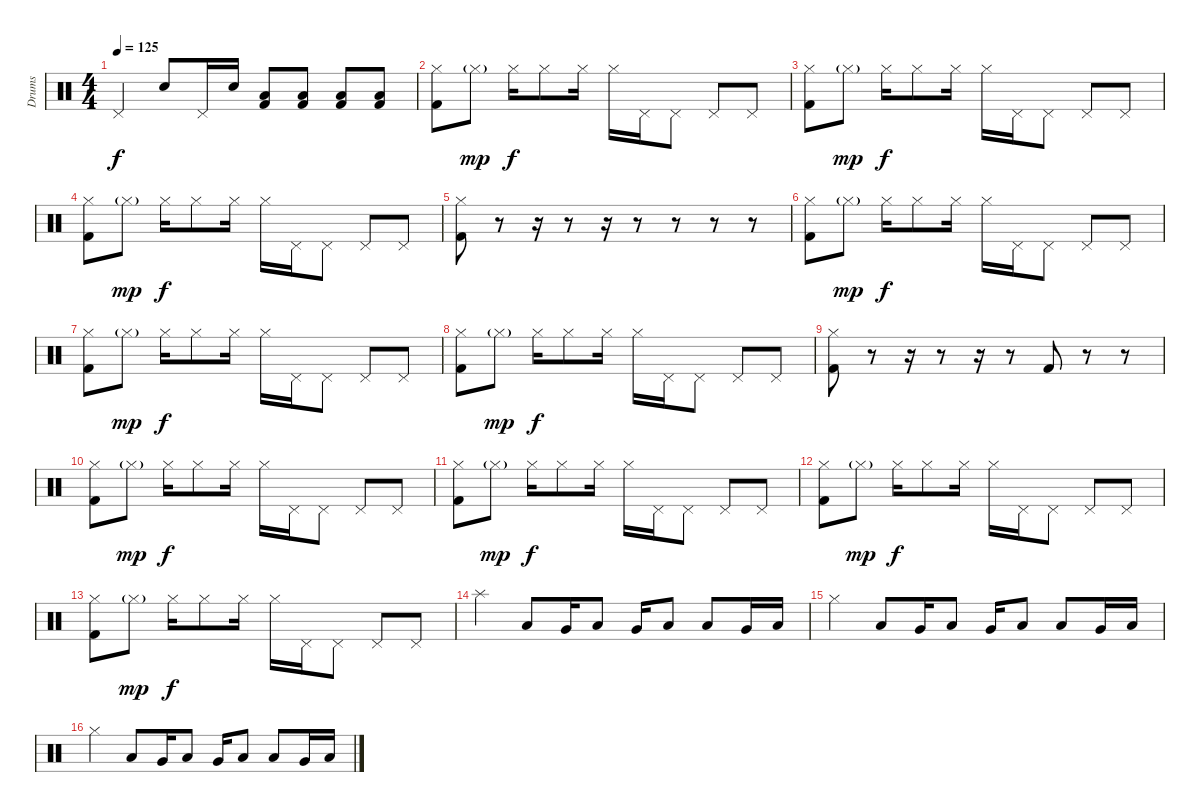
\track ("Drums" "Drums") {instrument percussion}
\staff {score}
\articulation defaults
\ts (4 4)
\tempo 125
\clef neutral
\ks c "Pedal Hi-Hat (hit)".4{dy f} "Snare (hit) 2".8 "Pedal Hi-Hat (hit)".16 "Snare (hit) 2".16
("Low Floor Tom (hit)" "Kick (hit) 2").8 ("Low Floor Tom (hit)" "Kick (hit) 2").8 ("Low Floor Tom (hit)" "Kick (hit) 2").8 ("Low Floor Tom (hit)" "Kick (hit) 2").8 |
("Kick (hit) 2" "Hi-Hat (closed)").8 "Hi-Hat (closed)"{g}.8{dy mp} "Hi-Hat (closed)".16{dy f} "Hi-Hat (closed)".8 "Hi-Hat (closed)".16 "Hi-Hat (closed)".16 "Pedal Hi-Hat (hit)".16 "Pedal Hi-Hat (hit)".8 "Pedal Hi-Hat (hit)".8 "Pedal Hi-Hat (hit)".8 |
("Kick (hit) 2" "Hi-Hat (closed)").8 "Hi-Hat (closed)"{g}.8{dy mp} "Hi-Hat (closed)".16{dy f} "Hi-Hat (closed)".8 "Hi-Hat (closed)".16 "Hi-Hat (closed)".16 "Pedal Hi-Hat (hit)".16 "Pedal Hi-Hat (hit)".8 "Pedal Hi-Hat (hit)".8 "Pedal Hi-Hat (hit)".8 |
("Kick (hit) 2" "Hi-Hat (closed)").8 "Hi-Hat (closed)"{g}.8{dy mp} "Hi-Hat (closed)".16{dy f} "Hi-Hat (closed)".8 "Hi-Hat (closed)".16 "Hi-Hat (closed)".16 "Pedal Hi-Hat (hit)".16 "Pedal Hi-Hat (hit)".8 "Pedal Hi-Hat (hit)".8 "Pedal Hi-Hat (hit)".8 |
("Kick (hit) 2" "Hi-Hat (closed)").8 r.8 r.16 r.8 r.16 r.8 r.8 r.8 r.8 |
("Kick (hit) 2" "Hi-Hat (closed)").8 "Hi-Hat (closed)"{g}.8{dy mp} "Hi-Hat (closed)".16{dy f} "Hi-Hat (closed)".8 "Hi-Hat (closed)".16 "Hi-Hat (closed)".16 "Pedal Hi-Hat (hit)".16 "Pedal Hi-Hat (hit)".8 "Pedal Hi-Hat (hit)".8 "Pedal Hi-Hat (hit)".8 |
("Kick (hit) 2" "Hi-Hat (closed)").8 "Hi-Hat (closed)"{g}.8{dy mp} "Hi-Hat (closed)".16{dy f} "Hi-Hat (closed)".8 "Hi-Hat (closed)".16 "Hi-Hat (closed)".16 "Pedal Hi-Hat (hit)".16 "Pedal Hi-Hat (hit)".8 "Pedal Hi-Hat (hit)".8 "Pedal Hi-Hat (hit)".8 |
("Kick (hit) 2" "Hi-Hat (closed)").8 "Hi-Hat (closed)"{g}.8{dy mp} "Hi-Hat (closed)".16{dy f} "Hi-Hat (closed)".8 "Hi-Hat (closed)".16 "Hi-Hat (closed)".16 "Pedal Hi-Hat (hit)".16 "Pedal Hi-Hat (hit)".8 "Pedal Hi-Hat (hit)".8 "Pedal Hi-Hat (hit)".8 |
("Kick (hit) 2" "Hi-Hat (closed)").8 r.8 r.16 r.8 r.16 r.8 "Kick (hit) 2".8 r.8 r.8 |
("Kick (hit) 2" "Hi-Hat (closed)").8 "Hi-Hat (closed)"{g}.8{dy mp} "Hi-Hat (closed)".16{dy f} "Hi-Hat (closed)".8 "Hi-Hat (closed)".16 "Hi-Hat (closed)".16 "Pedal Hi-Hat (hit)".16 "Pedal Hi-Hat (hit)".8 "Pedal Hi-Hat (hit)".8 "Pedal Hi-Hat (hit)".8 |
("Kick (hit) 2" "Hi-Hat (closed)").8 "Hi-Hat (closed)"{g}.8{dy mp} "Hi-Hat (closed)".16{dy f} "Hi-Hat (closed)".8 "Hi-Hat (closed)".16 "Hi-Hat (closed)".16 "Pedal Hi-Hat (hit)".16 "Pedal Hi-Hat (hit)".8 "Pedal Hi-Hat (hit)".8 "Pedal Hi-Hat (hit)".8 |
("Kick (hit) 2" "Hi-Hat (closed)").8 "Hi-Hat (closed)"{g}.8{dy mp} "Hi-Hat (closed)".16{dy f} "Hi-Hat (closed)".8 "Hi-Hat (closed)".16 "Hi-Hat (closed)".16 "Pedal Hi-Hat (hit)".16 "Pedal Hi-Hat (hit)".8 "Pedal Hi-Hat (hit)".8 "Pedal Hi-Hat (hit)".8 |
("Kick (hit) 2" "Hi-Hat (closed)").8 "Hi-Hat (closed)"{g}.8{dy mp} "Hi-Hat (closed)".16{dy f} "Hi-Hat (closed)".8 "Hi-Hat (closed)".16 "Hi-Hat (closed)".16 "Pedal Hi-Hat (hit)".16 "Pedal Hi-Hat (hit)".8 "Pedal Hi-Hat (hit)".8 "Pedal Hi-Hat (hit)".8 |
"Splash (hit)".4 "Low Floor Tom (hit)".8 "Very Low Tom (hit)".16 "Low Floor Tom (hit)".8 "Very Low Tom (hit)".16 "Low Floor Tom (hit)".8 "Low Floor Tom (hit)".8 "Very Low Tom (hit)".16 "Low Floor Tom (hit)".16 |
"Hi-Hat (closed)".4 "Low Floor Tom (hit)".8 "Very Low Tom (hit)".16 "Low Floor Tom (hit)".8 "Very Low Tom (hit)".16 "Low Floor Tom (hit)".8 "Low Floor Tom (hit)".8 "Very Low Tom (hit)".16 "Low Floor Tom (hit)".16 |
"Hi-Hat (closed)".4 "Low Floor Tom (hit)".8 "Very Low Tom (hit)".16 "Low Floor Tom (hit)".8 "Very Low Tom (hit)".16 "Low Floor Tom (hit)".8 "Low Floor Tom (hit)".8 "Very Low Tom (hit)".16 "Low Floor Tom (hit)".16
